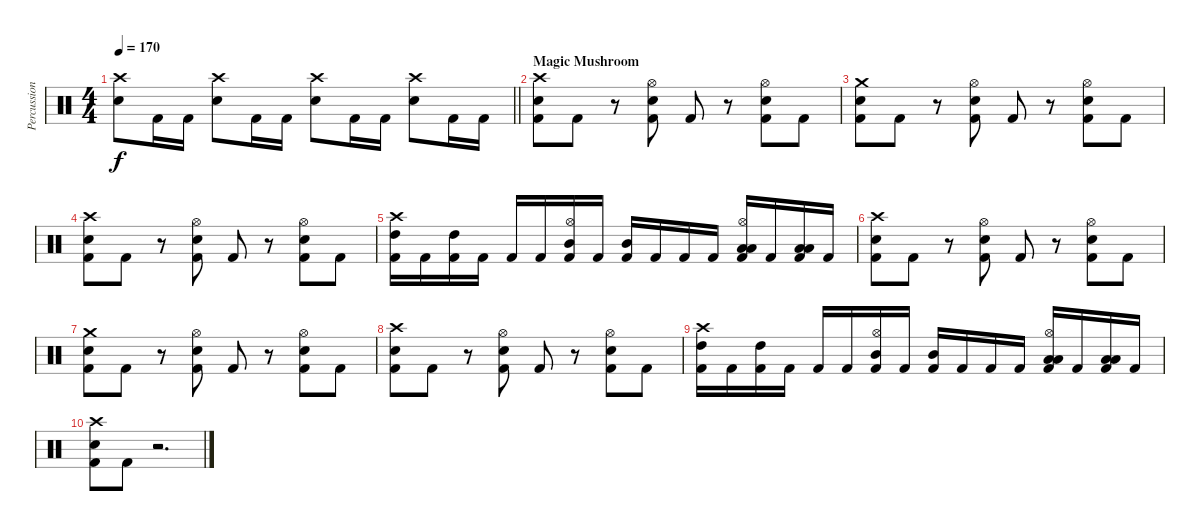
\track ("Percussion" "Percussion") {instrument percussion}
\staff {score}
\articulation defaults
\ts (4 4)
\tempo 170
\clef neutral
\barLineRight lightlight
\ks c
("Crash high (hit)" "Snare (hit) 2").8{dy f} "Kick (hit) 2".16 "Kick (hit) 2".16 ("Crash high (hit)" "Snare (hit) 2").8 "Kick (hit) 2".16 "Kick (hit) 2".16 ("Crash high (hit)" "Snare (hit) 2").8 "Kick (hit) 2".16 "Kick (hit) 2".16 ("Crash high (hit)" "Snare (hit) 2").8 "Kick (hit) 2".16 "Kick (hit) 2".16 |
\section ("" "Magic Mushroom")
("Crash high (hit)" "Snare (hit) 2" "Kick (hit) 2").8 "Kick (hit) 2".8 r.8 ("Hi-Hat (open)" "Snare (hit) 2" "Kick (hit) 2").8 "Kick (hit) 2".8 r.8 ("Hi-Hat (open)" "Snare (hit) 2" "Kick (hit) 2").8 "Kick (hit) 2".8 |
("Crash medium (hit)" "Snare (hit) 2" "Kick (hit) 2").8 "Kick (hit) 2".8 r.8 ("Hi-Hat (open)" "Snare (hit) 2" "Kick (hit) 2").8 "Kick (hit) 2".8 r.8 ("Hi-Hat (open)" "Snare (hit) 2" "Kick (hit) 2").8 "Kick (hit) 2".8 |
("Crash high (hit)" "Snare (hit) 2" "Kick (hit) 2").8 "Kick (hit) 2".8 r.8 ("Hi-Hat (open)" "Snare (hit) 2" "Kick (hit) 2").8 "Kick (hit) 2".8 r.8 ("Hi-Hat (open)" "Snare (hit) 2" "Kick (hit) 2").8 "Kick (hit) 2".8 |
("Crash high (hit)" "High Tom (hit)" "Kick (hit) 2").16 "Kick (hit) 2".16 ("High Tom (hit)" "Kick (hit) 2").16 "Kick (hit) 2".16 "Kick (hit) 2".16 "Kick (hit) 2".16 ("Hi-Hat (open)" "Mid Tom (hit)" "Kick (hit) 2").16 "Kick (hit) 2".16 ("Mid Tom (hit)" "Kick (hit) 2").16 "Kick (hit) 2".16 "Kick (hit) 2".16 "Kick (hit) 2".16 ("Hi-Hat (open)" "Low Tom (hit)" "Low Tom (hit)" "Kick (hit) 2").16 "Kick (hit) 2".16 ("Low Tom (hit)" "Low Tom (hit)" "Kick (hit) 2").16 "Kick (hit) 2".16 |
("Crash high (hit)" "Snare (hit) 2" "Kick (hit) 2").8 "Kick (hit) 2".8 r.8 ("Hi-Hat (open)" "Snare (hit) 2" "Kick (hit) 2").8 "Kick (hit) 2".8 r.8 ("Hi-Hat (open)" "Snare (hit) 2" "Kick (hit) 2").8 "Kick (hit) 2".8 |
("Crash medium (hit)" "Snare (hit) 2" "Kick (hit) 2").8 "Kick (hit) 2".8 r.8 ("Hi-Hat (open)" "Snare (hit) 2" "Kick (hit) 2").8 "Kick (hit) 2".8 r.8 ("Hi-Hat (open)" "Snare (hit) 2" "Kick (hit) 2").8 "Kick (hit) 2".8 |
("Crash high (hit)" "Snare (hit) 2" "Kick (hit) 2").8 "Kick (hit) 2".8 r.8 ("Hi-Hat (open)" "Snare (hit) 2" "Kick (hit) 2").8 "Kick (hit) 2".8 r.8 ("Hi-Hat (open)" "Snare (hit) 2" "Kick (hit) 2").8 "Kick (hit) 2".8 |
("Crash high (hit)" "High Tom (hit)" "Kick (hit) 2").16 "Kick (hit) 2".16 ("High Tom (hit)" "Kick (hit) 2").16 "Kick (hit) 2".16 "Kick (hit) 2".16 "Kick (hit) 2".16 ("Hi-Hat (open)" "Mid Tom (hit)" "Kick (hit) 2").16 "Kick (hit) 2".16 ("Mid Tom (hit)" "Kick (hit) 2").16 "Kick (hit) 2".16 "Kick (hit) 2".16 "Kick (hit) 2".16 ("Hi-Hat (open)" "Low Tom (hit)" "Low Tom (hit)" "Kick (hit) 2").16 "Kick (hit) 2".16 ("Low Tom (hit)" "Low Tom (hit)" "Kick (hit) 2").16 "Kick (hit) 2".16 |
("Crash high (hit)" "Snare (hit) 2" "Kick (hit) 2").8 "Kick (hit) 2".8 r.2{d}
